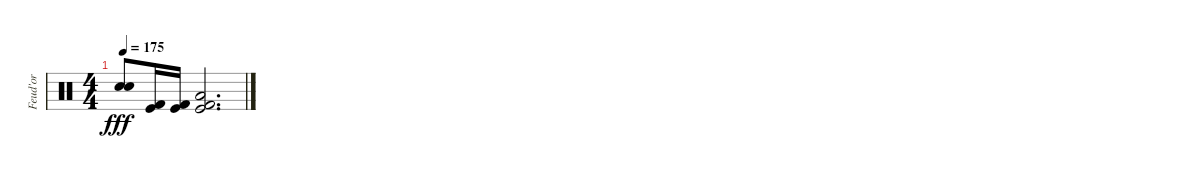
\track ("Feud'or" "Feud'or") {instrument percussion}
\staff {score}
\articulation defaults
\ts (4 4)
\tempo 175
\clef neutral
\ks c
("Electric Snare (hit)" "Snare (hit) 2").8{dy fff} ("Kick (hit) 2" "Kick (hit)").16 ("Kick (hit) 2" "Kick (hit)").16 ("Low Floor Tom (hit)" "Kick (hit) 2" "Kick (hit)").2{d}
